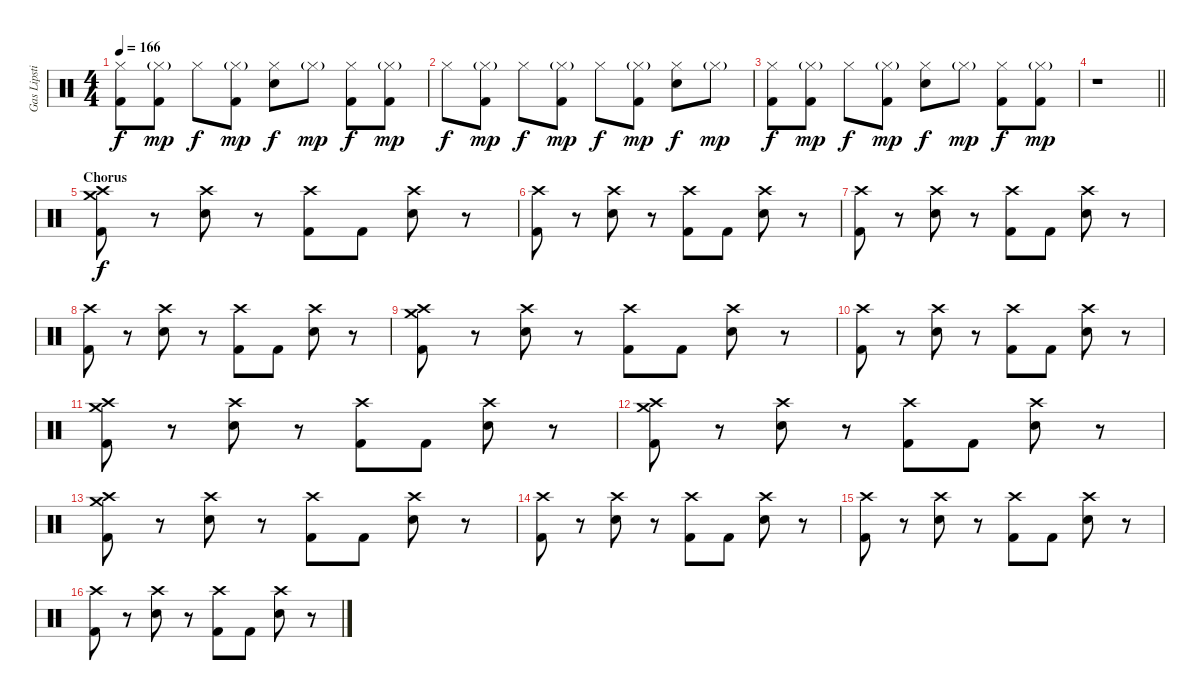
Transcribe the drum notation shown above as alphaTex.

\track ("Gas Lipstick (Drums)" "Gas Lipsti") {instrument percussion}
\staff {score}
\articulation defaults
\ts (4 4)
\tempo 166
\clef neutral
\ks c
("Hi-Hat (closed)" "Kick (hit) 2").8{dy f} ("Hi-Hat (closed)"{g} "Kick (hit) 2").8{dy mp} "Hi-Hat (closed)".8{dy f} ("Hi-Hat (closed)"{g} "Kick (hit) 2").8{dy mp} ("Hi-Hat (closed)" "Snare (hit) 2").8{dy f} "Hi-Hat (closed)"{g}.8{dy mp} ("Hi-Hat (closed)" "Kick (hit) 2").8{dy f} ("Hi-Hat (closed)"{g} "Kick (hit) 2").8{dy mp} |
"Hi-Hat (closed)".8{dy f} ("Hi-Hat (closed)"{g} "Kick (hit) 2").8{dy mp} "Hi-Hat (closed)".8{dy f} ("Hi-Hat (closed)"{g} "Kick (hit) 2").8{dy mp} "Hi-Hat (closed)".8{dy f} ("Hi-Hat (closed)"{g} "Kick (hit) 2").8{dy mp} ("Hi-Hat (closed)" "Snare (hit) 2").8{dy f} "Hi-Hat (closed)"{g}.8{dy mp} |
("Hi-Hat (closed)" "Kick (hit) 2").8{dy f} ("Hi-Hat (closed)"{g} "Kick (hit) 2").8{dy mp} "Hi-Hat (closed)".8{dy f} ("Hi-Hat (closed)"{g} "Kick (hit) 2").8{dy mp} ("Hi-Hat (closed)" "Snare (hit) 2").8{dy f} "Hi-Hat (closed)"{g}.8{dy mp} ("Hi-Hat (closed)" "Kick (hit) 2").8{dy f} ("Hi-Hat (closed)"{g} "Kick (hit) 2").8{dy mp} |
\barLineRight lightlight
r.1 |
\section ("" "Chorus")
("Crash medium (hit)" "Crash high (hit)" "Kick (hit) 2").8{dy f} r.8 ("Crash high (hit)" "Snare (hit) 2").8 r.8 ("Crash high (hit)" "Kick (hit) 2").8 "Kick (hit) 2".8 ("Crash high (hit)" "Snare (hit) 2").8 r.8 |
("Crash high (hit)" "Kick (hit) 2").8 r.8 ("Crash high (hit)" "Snare (hit) 2").8 r.8 ("Crash high (hit)" "Kick (hit) 2").8 "Kick (hit) 2".8 ("Crash high (hit)" "Snare (hit) 2").8 r.8 |
("Crash high (hit)" "Kick (hit) 2").8 r.8 ("Crash high (hit)" "Snare (hit) 2").8 r.8 ("Crash high (hit)" "Kick (hit) 2").8 "Kick (hit) 2".8 ("Crash high (hit)" "Snare (hit) 2").8 r.8 |
("Crash high (hit)" "Kick (hit) 2").8 r.8 ("Crash high (hit)" "Snare (hit) 2").8 r.8 ("Crash high (hit)" "Kick (hit) 2").8 "Kick (hit) 2".8 ("Crash high (hit)" "Snare (hit) 2").8 r.8 |
("Crash medium (hit)" "Crash high (hit)" "Kick (hit) 2").8 r.8 ("Crash high (hit)" "Snare (hit) 2").8 r.8 ("Crash high (hit)" "Kick (hit) 2").8 "Kick (hit) 2".8 ("Crash high (hit)" "Snare (hit) 2").8 r.8 |
("Crash high (hit)" "Kick (hit) 2").8 r.8 ("Crash high (hit)" "Snare (hit) 2").8 r.8 ("Crash high (hit)" "Kick (hit) 2").8 "Kick (hit) 2".8 ("Crash high (hit)" "Snare (hit) 2").8 r.8 |
("Crash medium (hit)" "Crash high (hit)" "Kick (hit) 2").8 r.8 ("Crash high (hit)" "Snare (hit) 2").8 r.8 ("Crash high (hit)" "Kick (hit) 2").8 "Kick (hit) 2".8 ("Crash high (hit)" "Snare (hit) 2").8 r.8 |
("Crash medium (hit)" "Crash high (hit)" "Kick (hit) 2").8 r.8 ("Crash high (hit)" "Snare (hit) 2").8 r.8 ("Crash high (hit)" "Kick (hit) 2").8 "Kick (hit) 2".8 ("Crash high (hit)" "Snare (hit) 2").8 r.8 |
("Crash medium (hit)" "Crash high (hit)" "Kick (hit) 2").8 r.8 ("Crash high (hit)" "Snare (hit) 2").8 r.8 ("Crash high (hit)" "Kick (hit) 2").8 "Kick (hit) 2".8 ("Crash high (hit)" "Snare (hit) 2").8 r.8 |
("Crash high (hit)" "Kick (hit) 2").8 r.8 ("Crash high (hit)" "Snare (hit) 2").8 r.8 ("Crash high (hit)" "Kick (hit) 2").8 "Kick (hit) 2".8 ("Crash high (hit)" "Snare (hit) 2").8 r.8 |
("Crash high (hit)" "Kick (hit) 2").8 r.8 ("Crash high (hit)" "Snare (hit) 2").8 r.8 ("Crash high (hit)" "Kick (hit) 2").8 "Kick (hit) 2".8 ("Crash high (hit)" "Snare (hit) 2").8 r.8 |
("Crash high (hit)" "Kick (hit) 2").8 r.8 ("Crash high (hit)" "Snare (hit) 2").8 r.8 ("Crash high (hit)" "Kick (hit) 2").8 "Kick (hit) 2".8 ("Crash high (hit)" "Snare (hit) 2").8 r.8
